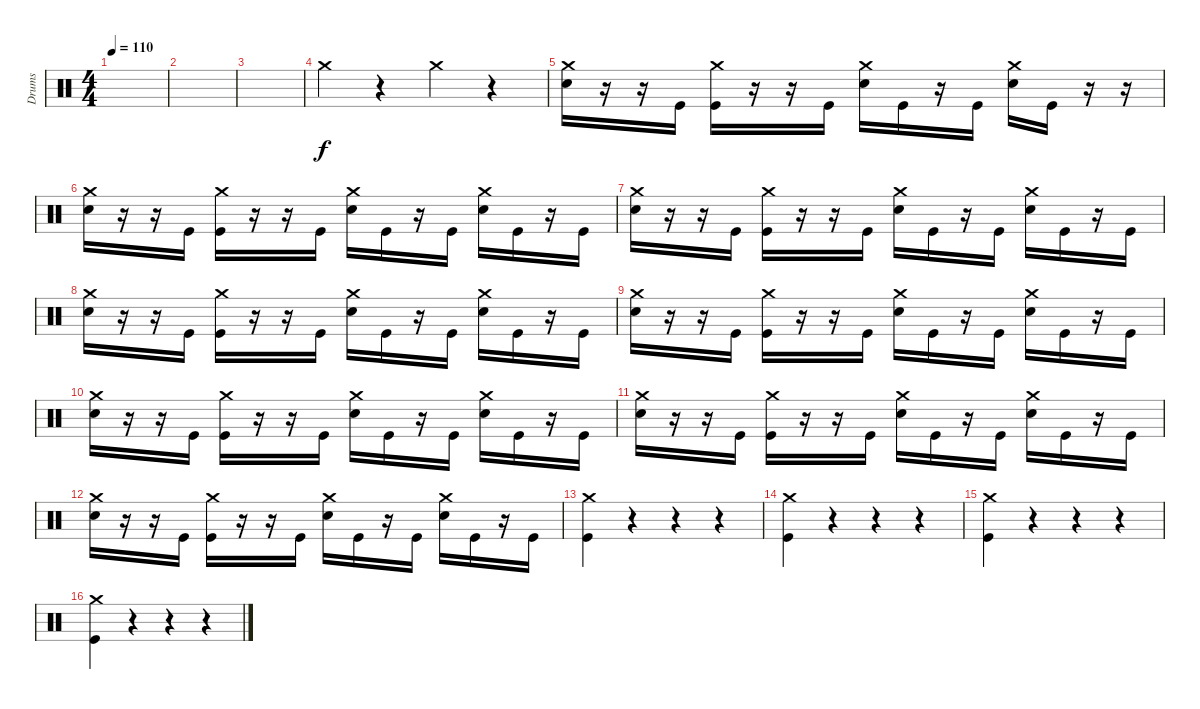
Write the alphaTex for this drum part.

\track ("Drums" "Drums") {instrument percussion}
\staff {score}
\articulation defaults
\ts (4 4)
\tempo 110
\clef neutral
\ks c
|
|
|
"Crash medium (hit)".4 r.4 "Crash medium (hit)".4 r.4 |
("Crash medium (hit)" "Electric Snare (hit)").16 r.16 r.16 "Kick (hit)".16 ("Crash medium (hit)" "Kick (hit)").16 r.16 r.16 "Kick (hit)".16 ("Crash medium (hit)" "Electric Snare (hit)").16 "Kick (hit)".16 r.16 "Kick (hit)".16 ("Crash medium (hit)" "Electric Snare (hit)").16 "Kick (hit)".16 r.16 r.16 |
("Crash medium (hit)" "Electric Snare (hit)").16 r.16 r.16 "Kick (hit)".16 ("Crash medium (hit)" "Kick (hit)").16 r.16 r.16 "Kick (hit)".16 ("Crash medium (hit)" "Electric Snare (hit)").16 "Kick (hit)".16 r.16 "Kick (hit)".16 ("Crash medium (hit)" "Electric Snare (hit)").16 "Kick (hit)".16 r.16 "Kick (hit)".16 |
("Crash medium (hit)" "Electric Snare (hit)").16 r.16 r.16 "Kick (hit)".16 ("Crash medium (hit)" "Kick (hit)").16 r.16 r.16 "Kick (hit)".16 ("Crash medium (hit)" "Electric Snare (hit)").16 "Kick (hit)".16 r.16 "Kick (hit)".16 ("Crash medium (hit)" "Electric Snare (hit)").16 "Kick (hit)".16 r.16 "Kick (hit)".16 |
("Crash medium (hit)" "Electric Snare (hit)").16 r.16 r.16 "Kick (hit)".16 ("Crash medium (hit)" "Kick (hit)").16 r.16 r.16 "Kick (hit)".16 ("Crash medium (hit)" "Electric Snare (hit)").16 "Kick (hit)".16 r.16 "Kick (hit)".16 ("Crash medium (hit)" "Electric Snare (hit)").16 "Kick (hit)".16 r.16 "Kick (hit)".16 |
("Crash medium (hit)" "Electric Snare (hit)").16 r.16 r.16 "Kick (hit)".16 ("Crash medium (hit)" "Kick (hit)").16 r.16 r.16 "Kick (hit)".16 ("Crash medium (hit)" "Electric Snare (hit)").16 "Kick (hit)".16 r.16 "Kick (hit)".16 ("Crash medium (hit)" "Electric Snare (hit)").16 "Kick (hit)".16 r.16 "Kick (hit)".16 |
("Crash medium (hit)" "Electric Snare (hit)").16 r.16 r.16 "Kick (hit)".16 ("Crash medium (hit)" "Kick (hit)").16 r.16 r.16 "Kick (hit)".16 ("Crash medium (hit)" "Electric Snare (hit)").16 "Kick (hit)".16 r.16 "Kick (hit)".16 ("Crash medium (hit)" "Electric Snare (hit)").16 "Kick (hit)".16 r.16 "Kick (hit)".16 |
("Crash medium (hit)" "Electric Snare (hit)").16 r.16 r.16 "Kick (hit)".16 ("Crash medium (hit)" "Kick (hit)").16 r.16 r.16 "Kick (hit)".16 ("Crash medium (hit)" "Electric Snare (hit)").16 "Kick (hit)".16 r.16 "Kick (hit)".16 ("Crash medium (hit)" "Electric Snare (hit)").16 "Kick (hit)".16 r.16 "Kick (hit)".16 |
("Crash medium (hit)" "Electric Snare (hit)").16 r.16 r.16 "Kick (hit)".16 ("Crash medium (hit)" "Kick (hit)").16 r.16 r.16 "Kick (hit)".16 ("Crash medium (hit)" "Electric Snare (hit)").16 "Kick (hit)".16 r.16 "Kick (hit)".16 ("Crash medium (hit)" "Electric Snare (hit)").16 "Kick (hit)".16 r.16 "Kick (hit)".16 |
("Crash medium (hit)" "Kick (hit)").4 r.4 r.4 r.4 |
("Crash medium (hit)" "Kick (hit)").4 r.4 r.4 r.4 |
("Crash medium (hit)" "Kick (hit)").4 r.4 r.4 r.4 |
("Crash medium (hit)" "Kick (hit)").4 r.4 r.4 r.4
